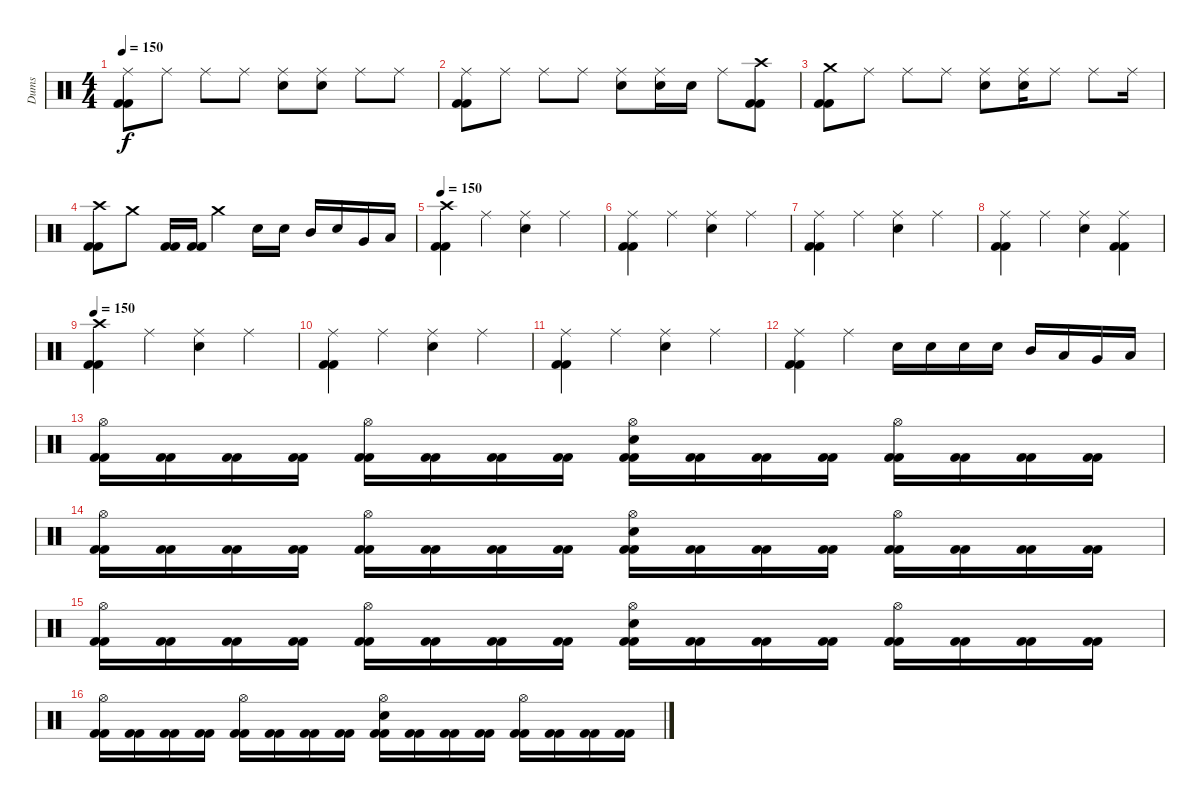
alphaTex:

\track ("Dums" "Dums") {instrument percussion}
\staff {score}
\articulation defaults
\ts (4 4)
\tempo 150
\clef neutral
\ks c
("Ride (middle)" "Kick (hit) 2" "Kick (hit) 2").8{dy f} "Ride (middle)".8 "Ride (middle)".8 "Ride (middle)".8 ("Ride (middle)" "Electric Snare (hit)").8 ("Ride (middle)" "Electric Snare (hit)").8 "Ride (middle)".8 "Ride (middle)".8 |
("Ride (middle)" "Kick (hit) 2" "Kick (hit) 2").8 "Ride (middle)".8 "Ride (middle)".8 "Ride (middle)".8 ("Ride (middle)" "Electric Snare (hit)").8 ("Ride (middle)" "Electric Snare (hit)").16 "Electric Snare (hit)".16 "Ride (middle)".8 ("Crash high (hit)" "Kick (hit) 2" "Kick (hit) 2").8 |
("Crash medium (hit)" "Kick (hit) 2" "Kick (hit) 2").8 "Ride (middle)".8 "Ride (middle)".8 "Ride (middle)".8 ("Ride (middle)" "Electric Snare (hit)").8 ("Ride (middle)" "Electric Snare (hit)").16 "Ride (middle)".8 "Ride (middle)".8 "Ride (middle)".16 |
("Crash high (hit)" "Kick (hit) 2" "Kick (hit) 2").8 "Crash medium (hit)".8 ("Kick (hit) 2" "Kick (hit) 2").16 ("Kick (hit) 2" "Kick (hit) 2").16 "Crash medium (hit)".4 "Electric Snare (hit)".16 "Electric Snare (hit)".16 "Mid Tom (hit)".16 "Electric Snare (hit)".16 "Very Low Tom (hit)".16 "Low Floor Tom (hit)".16 |
\tempo 150
("Crash high (hit)" "Kick (hit) 2" "Kick (hit) 2").4 "Ride (middle)".4 ("Ride (middle)" "Electric Snare (hit)").4 "Ride (middle)".4 |
("Ride (middle)" "Kick (hit) 2" "Kick (hit) 2").4 "Ride (middle)".4 ("Ride (middle)" "Electric Snare (hit)").4 "Ride (middle)".4 |
("Ride (middle)" "Kick (hit) 2" "Kick (hit) 2").4 "Ride (middle)".4 ("Ride (middle)" "Electric Snare (hit)").4 "Ride (middle)".4 |
("Ride (middle)" "Kick (hit) 2" "Kick (hit) 2").4 "Ride (middle)".4 ("Ride (middle)" "Electric Snare (hit)").4 ("Ride (middle)" "Kick (hit) 2" "Kick (hit) 2").4 |
\tempo 150
("Crash high (hit)" "Kick (hit) 2" "Kick (hit) 2").4 "Ride (middle)".4 ("Ride (middle)" "Electric Snare (hit)").4 "Ride (middle)".4 |
("Ride (middle)" "Kick (hit) 2" "Kick (hit) 2").4 "Ride (middle)".4 ("Ride (middle)" "Electric Snare (hit)").4 "Ride (middle)".4 |
("Ride (middle)" "Kick (hit) 2" "Kick (hit) 2").4 "Ride (middle)".4 ("Ride (middle)" "Electric Snare (hit)").4 "Ride (middle)".4 |
("Ride (middle)" "Kick (hit) 2" "Kick (hit) 2").4 "Ride (middle)".4 "Electric Snare (hit)".16 "Electric Snare (hit)".16 "Electric Snare (hit)".16 "Electric Snare (hit)".16 "Mid Tom (hit)".16 "Low Tom (hit)".16 "Very Low Tom (hit)".16 "Low Floor Tom (hit)".16 |
("Hi-Hat (open)" "Kick (hit) 2" "Kick (hit) 2").16 ("Kick (hit) 2" "Kick (hit) 2").16 ("Kick (hit) 2" "Kick (hit) 2").16 ("Kick (hit) 2" "Kick (hit) 2").16 ("Hi-Hat (open)" "Kick (hit) 2" "Kick (hit) 2").16 ("Kick (hit) 2" "Kick (hit) 2").16 ("Kick (hit) 2" "Kick (hit) 2").16 ("Kick (hit) 2" "Kick (hit) 2").16 ("Hi-Hat (open)" "Electric Snare (hit)" "Kick (hit) 2" "Kick (hit) 2").16 ("Kick (hit) 2" "Kick (hit) 2").16 ("Kick (hit) 2" "Kick (hit) 2").16 ("Kick (hit) 2" "Kick (hit) 2").16 ("Hi-Hat (open)" "Kick (hit) 2" "Kick (hit) 2").16 ("Kick (hit) 2" "Kick (hit) 2").16 ("Kick (hit) 2" "Kick (hit) 2").16 ("Kick (hit) 2" "Kick (hit) 2").16 |
("Hi-Hat (open)" "Kick (hit) 2" "Kick (hit) 2").16 ("Kick (hit) 2" "Kick (hit) 2").16 ("Kick (hit) 2" "Kick (hit) 2").16 ("Kick (hit) 2" "Kick (hit) 2").16 ("Hi-Hat (open)" "Kick (hit) 2" "Kick (hit) 2").16 ("Kick (hit) 2" "Kick (hit) 2").16 ("Kick (hit) 2" "Kick (hit) 2").16 ("Kick (hit) 2" "Kick (hit) 2").16 ("Hi-Hat (open)" "Electric Snare (hit)" "Kick (hit) 2" "Kick (hit) 2").16 ("Kick (hit) 2" "Kick (hit) 2").16 ("Kick (hit) 2" "Kick (hit) 2").16 ("Kick (hit) 2" "Kick (hit) 2").16 ("Hi-Hat (open)" "Kick (hit) 2" "Kick (hit) 2").16 ("Kick (hit) 2" "Kick (hit) 2").16 ("Kick (hit) 2" "Kick (hit) 2").16 ("Kick (hit) 2" "Kick (hit) 2").16 |
("Hi-Hat (open)" "Kick (hit) 2" "Kick (hit) 2").16 ("Kick (hit) 2" "Kick (hit) 2").16 ("Kick (hit) 2" "Kick (hit) 2").16 ("Kick (hit) 2" "Kick (hit) 2").16 ("Hi-Hat (open)" "Kick (hit) 2" "Kick (hit) 2").16 ("Kick (hit) 2" "Kick (hit) 2").16 ("Kick (hit) 2" "Kick (hit) 2").16 ("Kick (hit) 2" "Kick (hit) 2").16 ("Hi-Hat (open)" "Electric Snare (hit)" "Kick (hit) 2" "Kick (hit) 2").16 ("Kick (hit) 2" "Kick (hit) 2").16 ("Kick (hit) 2" "Kick (hit) 2").16 ("Kick (hit) 2" "Kick (hit) 2").16 ("Hi-Hat (open)" "Kick (hit) 2" "Kick (hit) 2").16 ("Kick (hit) 2" "Kick (hit) 2").16 ("Kick (hit) 2" "Kick (hit) 2").16 ("Kick (hit) 2" "Kick (hit) 2").16 |
("Hi-Hat (open)" "Kick (hit) 2" "Kick (hit) 2").16 ("Kick (hit) 2" "Kick (hit) 2").16 ("Kick (hit) 2" "Kick (hit) 2").16 ("Kick (hit) 2" "Kick (hit) 2").16 ("Hi-Hat (open)" "Kick (hit) 2" "Kick (hit) 2").16 ("Kick (hit) 2" "Kick (hit) 2").16 ("Kick (hit) 2" "Kick (hit) 2").16 ("Kick (hit) 2" "Kick (hit) 2").16 ("Hi-Hat (open)" "Electric Snare (hit)" "Kick (hit) 2" "Kick (hit) 2").16 ("Kick (hit) 2" "Kick (hit) 2").16 ("Kick (hit) 2" "Kick (hit) 2").16 ("Kick (hit) 2" "Kick (hit) 2").16 ("Hi-Hat (open)" "Kick (hit) 2" "Kick (hit) 2").16 ("Kick (hit) 2" "Kick (hit) 2").16 ("Kick (hit) 2" "Kick (hit) 2").16 ("Kick (hit) 2" "Kick (hit) 2").16
